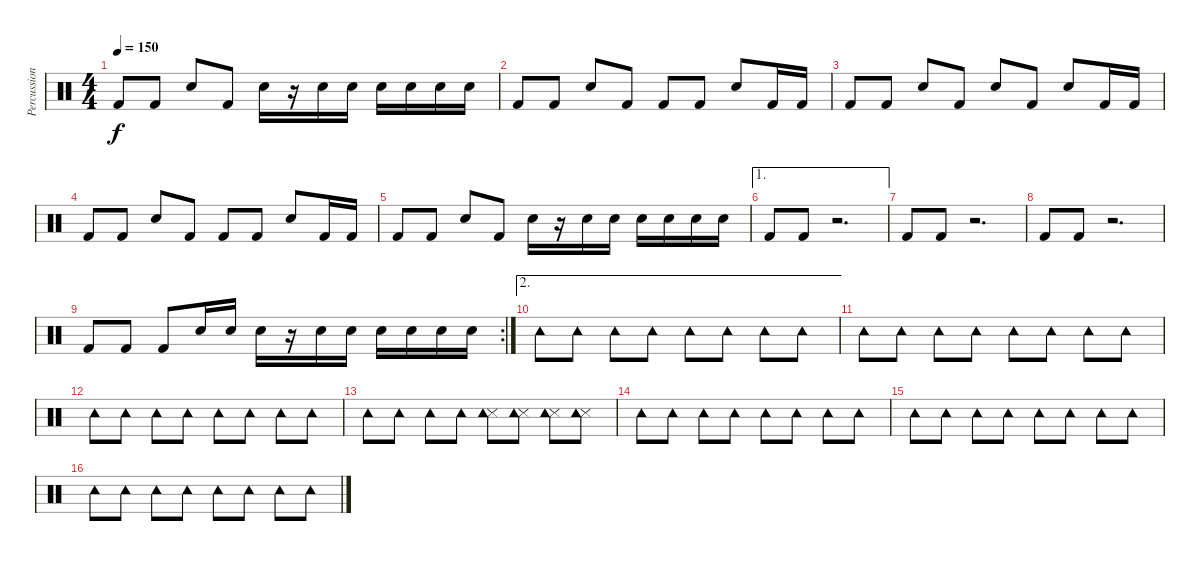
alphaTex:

\track ("Percussions" "Percussion") {instrument percussion}
\staff {score}
\articulation defaults
\ts (4 4)
\tempo 150
\clef neutral
\ks c "Kick (hit) 2".8{dy f} "Kick (hit) 2".8 "Electric Snare (hit)".8 "Kick (hit) 2".8 "Snare (hit) 2".16
r.16 "Snare (hit) 2".16 "Snare (hit) 2".16 "Snare (hit) 2".16 "Snare (hit) 2".16 "Snare (hit) 2".16 "Snare (hit) 2".16 |
"Kick (hit) 2".8 "Kick (hit) 2".8 "Electric Snare (hit)".8 "Kick (hit) 2".8 "Kick (hit) 2".8 "Kick (hit) 2".8 "Electric Snare (hit)".8 "Kick (hit) 2".16 "Kick (hit) 2".16 |
"Kick (hit) 2".8 "Kick (hit) 2".8 "Electric Snare (hit)".8 "Kick (hit) 2".8 "Snare (hit) 2".8 "Kick (hit) 2".8 "Electric Snare (hit)".8 "Kick (hit) 2".16 "Kick (hit) 2".16 |
"Kick (hit) 2".8 "Kick (hit) 2".8 "Electric Snare (hit)".8 "Kick (hit) 2".8 "Kick (hit) 2".8 "Kick (hit) 2".8 "Electric Snare (hit)".8 "Kick (hit) 2".16 "Kick (hit) 2".16 |
"Kick (hit) 2".8 "Kick (hit) 2".8 "Electric Snare (hit)".8 "Kick (hit) 2".8 "Snare (hit) 2".16 r.16 "Snare (hit) 2".16 "Snare (hit) 2".16 "Snare (hit) 2".16 "Snare (hit) 2".16 "Snare (hit) 2".16 "Snare (hit) 2".16 |
\ae 1 "Kick (hit) 2".8 "Kick (hit) 2".8
r.2{d} |
"Kick (hit) 2".8 "Kick (hit) 2".8 r.2{d} |
"Kick (hit) 2".8 "Kick (hit) 2".8 r.2{d} |
\rc 2 "Kick (hit) 2".8 "Kick (hit) 2".8 "Kick (hit) 2".8 "Snare (hit) 2".16 "Snare (hit) 2".16 "Snare (hit) 2".16
r.16 "Snare (hit) 2".16 "Snare (hit) 2".16 "Snare (hit) 2".16 "Snare (hit) 2".16 "Snare (hit) 2".16 "Snare (hit) 2".16 |
\ae 2 "Tambourine (hit)".8 "Tambourine (hit)".8 "Tambourine (hit)".8 "Tambourine (hit)".8 "Tambourine (hit)".8 "Tambourine (hit)".8 "Tambourine (hit)".8 "Tambourine (hit)".8
|
"Tambourine (hit)".8 "Tambourine (hit)".8 "Tambourine (hit)".8 "Tambourine (hit)".8 "Tambourine (hit)".8 "Tambourine (hit)".8 "Tambourine (hit)".8 "Tambourine (hit)".8 |
"Tambourine (hit)".8 "Tambourine (hit)".8 "Tambourine (hit)".8 "Tambourine (hit)".8 "Tambourine (hit)".8 "Tambourine (hit)".8 "Tambourine (hit)".8 "Tambourine (hit)".8 |
"Tambourine (hit)".8 "Tambourine (hit)".8 "Tambourine (hit)".8 "Tambourine (hit)".8 ("Snare (side stick) 3" "Tambourine (hit)").8 ("Snare (side stick) 3" "Tambourine (hit)").8 ("Snare (side stick) 3" "Tambourine (hit)").8 ("Snare (side stick) 3" "Tambourine (hit)").8 |
"Tambourine (hit)".8 "Tambourine (hit)".8 "Tambourine (hit)".8 "Tambourine (hit)".8 "Tambourine (hit)".8 "Tambourine (hit)".8 "Tambourine (hit)".8 "Tambourine (hit)".8 |
"Tambourine (hit)".8 "Tambourine (hit)".8 "Tambourine (hit)".8 "Tambourine (hit)".8 "Tambourine (hit)".8 "Tambourine (hit)".8 "Tambourine (hit)".8 "Tambourine (hit)".8 |
"Tambourine (hit)".8 "Tambourine (hit)".8 "Tambourine (hit)".8 "Tambourine (hit)".8 "Tambourine (hit)".8 "Tambourine (hit)".8 "Tambourine (hit)".8 "Tambourine (hit)".8
